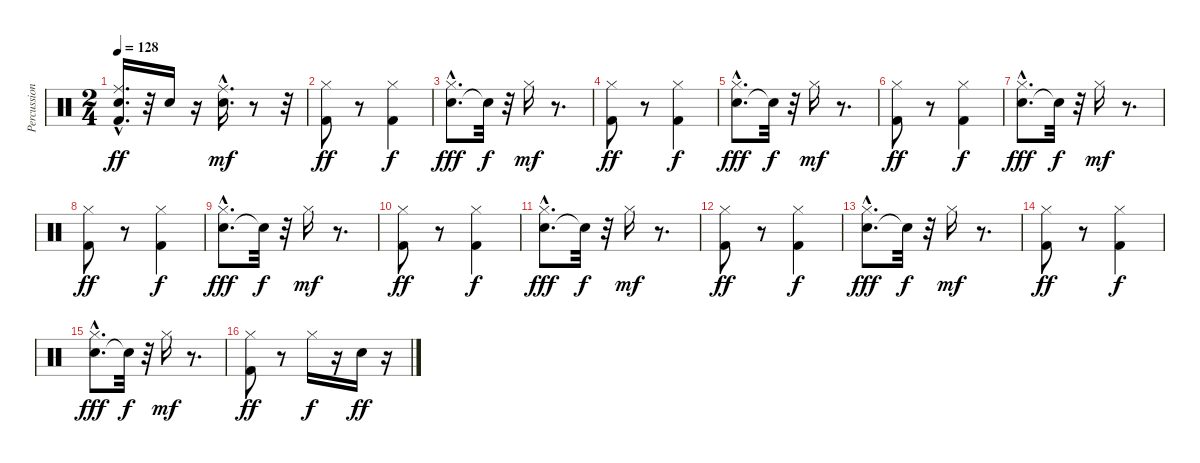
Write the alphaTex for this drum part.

\track ("Percussion" "Percussion") {instrument percussion}
\staff {score}
\articulation defaults
\ts (2 4)
\tempo 128
\clef neutral
\ks c
("Electric Snare (hit)" "Ride (middle)" "Kick (hit) 2"{hac}).16{d dy ff} r.32 "Electric Snare (hit)".16 r.16 ("Electric Snare (hit)"{hac} "Ride (middle)").16{d dy mf} r.8 r.32 |
("Hi-Hat (closed)" "Kick (hit) 2").8{dy ff} r.8 ("Kick (hit) 2" "Hi-Hat (closed)").4{dy f} |
("Electric Snare (hit)"{hac} "Hi-Hat (closed)").8{d dy fff} "Snare (hit)"{t}.32{dy f} r.32 "Hi-Hat (closed)".16{dy mf} r.8{d} |
("Hi-Hat (closed)" "Kick (hit) 2").8{dy ff} r.8 ("Kick (hit) 2" "Hi-Hat (closed)").4{dy f} |
("Electric Snare (hit)"{hac} "Hi-Hat (closed)").8{d dy fff} "Snare (hit)"{t}.32{dy f} r.32 "Hi-Hat (closed)".16{dy mf} r.8{d} |
("Hi-Hat (closed)" "Kick (hit) 2").8{dy ff} r.8 ("Kick (hit) 2" "Hi-Hat (closed)").4{dy f} |
("Electric Snare (hit)"{hac} "Hi-Hat (closed)").8{d dy fff} "Snare (hit)"{t}.32{dy f} r.32 "Hi-Hat (closed)".16{dy mf} r.8{d} |
("Hi-Hat (closed)" "Kick (hit) 2").8{dy ff} r.8 ("Kick (hit) 2" "Hi-Hat (closed)").4{dy f} |
("Electric Snare (hit)"{hac} "Hi-Hat (closed)").8{d dy fff} "Snare (hit)"{t}.32{dy f} r.32 "Hi-Hat (closed)".16{dy mf} r.8{d} |
("Hi-Hat (closed)" "Kick (hit) 2").8{dy ff} r.8 ("Kick (hit) 2" "Hi-Hat (closed)").4{dy f} |
("Electric Snare (hit)"{hac} "Hi-Hat (closed)").8{d dy fff} "Snare (hit)"{t}.32{dy f} r.32 "Hi-Hat (closed)".16{dy mf} r.8{d} |
("Hi-Hat (closed)" "Kick (hit) 2").8{dy ff} r.8 ("Kick (hit) 2" "Hi-Hat (closed)").4{dy f} |
("Electric Snare (hit)"{hac} "Hi-Hat (closed)").8{d dy fff} "Snare (hit)"{t}.32{dy f} r.32 "Hi-Hat (closed)".16{dy mf} r.8{d} |
("Hi-Hat (closed)" "Kick (hit) 2").8{dy ff} r.8 ("Kick (hit) 2" "Hi-Hat (closed)").4{dy f} |
("Electric Snare (hit)"{hac} "Hi-Hat (closed)").8{d dy fff} "Snare (hit)"{t}.32{dy f} r.32 "Hi-Hat (closed)".16{dy mf} r.8{d} |
("Hi-Hat (closed)" "Kick (hit) 2").8{dy ff} r.8 "Hi-Hat (closed)".16{dy f} r.16 "Electric Snare (hit)".16{dy ff} r.16
